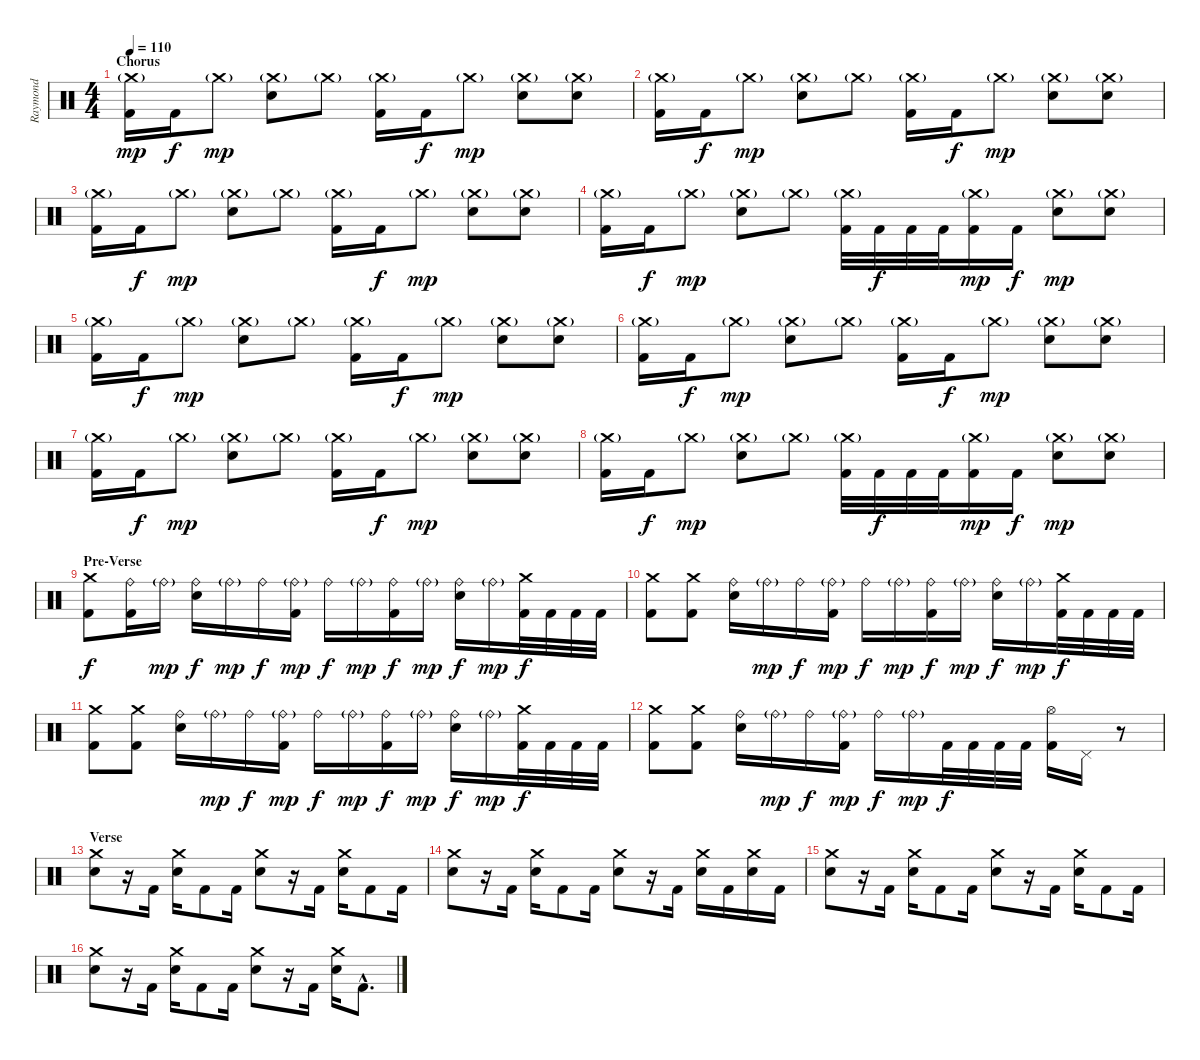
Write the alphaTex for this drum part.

\track ("Raymond" "Raymond") {instrument percussion}
\staff {score}
\articulation defaults
\ts (4 4)
\section ("" "Chorus")
\tempo 110
\clef neutral
\ks c
("Crash medium (hit)"{g} "Kick (hit) 2").16{dy mp} "Kick (hit) 2".16{dy f} "Crash medium (hit)"{g}.8{dy mp} ("Crash medium (hit)"{g} "Electric Snare (hit)").8 "Crash medium (hit)"{g}.8 ("Crash medium (hit)"{g} "Kick (hit) 2").16 "Kick (hit) 2".16{dy f} "Crash medium (hit)"{g}.8{dy mp} ("Crash medium (hit)"{g} "Electric Snare (hit)").8 ("Crash medium (hit)"{g} "Electric Snare (hit)").8 |
("Crash medium (hit)"{g} "Kick (hit) 2").16 "Kick (hit) 2".16{dy f} "Crash medium (hit)"{g}.8{dy mp} ("Crash medium (hit)"{g} "Electric Snare (hit)").8 "Crash medium (hit)"{g}.8 ("Crash medium (hit)"{g} "Kick (hit) 2").16 "Kick (hit) 2".16{dy f} "Crash medium (hit)"{g}.8{dy mp} ("Crash medium (hit)"{g} "Electric Snare (hit)").8 ("Crash medium (hit)"{g} "Electric Snare (hit)").8 |
("Crash medium (hit)"{g} "Kick (hit) 2").16 "Kick (hit) 2".16{dy f} "Crash medium (hit)"{g}.8{dy mp} ("Crash medium (hit)"{g} "Electric Snare (hit)").8 "Crash medium (hit)"{g}.8 ("Crash medium (hit)"{g} "Kick (hit) 2").16 "Kick (hit) 2".16{dy f} "Crash medium (hit)"{g}.8{dy mp} ("Crash medium (hit)"{g} "Electric Snare (hit)").8 ("Crash medium (hit)"{g} "Electric Snare (hit)").8 |
("Crash medium (hit)"{g} "Kick (hit) 2").16 "Kick (hit) 2".16{dy f} "Crash medium (hit)"{g}.8{dy mp} ("Crash medium (hit)"{g} "Electric Snare (hit)").8 "Crash medium (hit)"{g}.8 ("Crash medium (hit)"{g} "Kick (hit) 2").32 "Kick (hit) 2".32{dy f} "Kick (hit) 2".32 "Kick (hit) 2".32 ("Crash medium (hit)"{g} "Kick (hit) 2").16{dy mp} "Kick (hit) 2".16{dy f} ("Crash medium (hit)"{g} "Electric Snare (hit)").8{dy mp} ("Crash medium (hit)"{g} "Electric Snare (hit)").8 |
("Crash medium (hit)"{g} "Kick (hit) 2").16 "Kick (hit) 2".16{dy f} "Crash medium (hit)"{g}.8{dy mp} ("Crash medium (hit)"{g} "Electric Snare (hit)").8 "Crash medium (hit)"{g}.8 ("Crash medium (hit)"{g} "Kick (hit) 2").16 "Kick (hit) 2".16{dy f} "Crash medium (hit)"{g}.8{dy mp} ("Crash medium (hit)"{g} "Electric Snare (hit)").8 ("Crash medium (hit)"{g} "Electric Snare (hit)").8 |
("Crash medium (hit)"{g} "Kick (hit) 2").16 "Kick (hit) 2".16{dy f} "Crash medium (hit)"{g}.8{dy mp} ("Crash medium (hit)"{g} "Electric Snare (hit)").8 "Crash medium (hit)"{g}.8 ("Crash medium (hit)"{g} "Kick (hit) 2").16 "Kick (hit) 2".16{dy f} "Crash medium (hit)"{g}.8{dy mp} ("Crash medium (hit)"{g} "Electric Snare (hit)").8 ("Crash medium (hit)"{g} "Electric Snare (hit)").8 |
("Crash medium (hit)"{g} "Kick (hit) 2").16 "Kick (hit) 2".16{dy f} "Crash medium (hit)"{g}.8{dy mp} ("Crash medium (hit)"{g} "Electric Snare (hit)").8 "Crash medium (hit)"{g}.8 ("Crash medium (hit)"{g} "Kick (hit) 2").16 "Kick (hit) 2".16{dy f} "Crash medium (hit)"{g}.8{dy mp} ("Crash medium (hit)"{g} "Electric Snare (hit)").8 ("Crash medium (hit)"{g} "Electric Snare (hit)").8 |
("Crash medium (hit)"{g} "Kick (hit) 2").16 "Kick (hit) 2".16{dy f} "Crash medium (hit)"{g}.8{dy mp} ("Crash medium (hit)"{g} "Electric Snare (hit)").8 "Crash medium (hit)"{g}.8 ("Crash medium (hit)"{g} "Kick (hit) 2").32 "Kick (hit) 2".32{dy f} "Kick (hit) 2".32 "Kick (hit) 2".32 ("Crash medium (hit)"{g} "Kick (hit) 2").16{dy mp} "Kick (hit) 2".16{dy f} ("Crash medium (hit)"{g} "Electric Snare (hit)").8{dy mp} ("Crash medium (hit)"{g} "Electric Snare (hit)").8 |
\section ("" "Pre-Verse")
("Crash medium (hit)" "Kick (hit) 2").8{dy f} ("Ride (bell)" "Kick (hit) 2").16 "Ride (bell)"{g}.16{dy mp} ("Ride (bell)" "Electric Snare (hit)").16{dy f} "Ride (bell)"{g}.16{dy mp} "Ride (bell)".16{dy f} ("Ride (bell)"{g} "Kick (hit) 2").16{dy mp} "Ride (bell)".16{dy f} "Ride (bell)"{g}.16{dy mp} ("Ride (bell)" "Kick (hit) 2").16{dy f} "Ride (bell)"{g}.16{dy mp} ("Ride (bell)" "Electric Snare (hit)").16{dy f} "Ride (bell)"{g}.16{dy mp} ("Crash medium (hit)" "Kick (hit) 2").32{dy f} "Kick (hit) 2".32 "Kick (hit) 2".32 "Kick (hit) 2".32 |
("Crash medium (hit)" "Kick (hit) 2").8 ("Crash medium (hit)" "Kick (hit) 2").8 ("Ride (bell)" "Electric Snare (hit)").16 "Ride (bell)"{g}.16{dy mp} "Ride (bell)".16{dy f} ("Ride (bell)"{g} "Kick (hit) 2").16{dy mp} "Ride (bell)".16{dy f} "Ride (bell)"{g}.16{dy mp} ("Ride (bell)" "Kick (hit) 2").16{dy f} "Ride (bell)"{g}.16{dy mp} ("Ride (bell)" "Electric Snare (hit)").16{dy f} "Ride (bell)"{g}.16{dy mp} ("Crash medium (hit)" "Kick (hit) 2").32{dy f} "Kick (hit) 2".32 "Kick (hit) 2".32 "Kick (hit) 2".32 |
("Crash medium (hit)" "Kick (hit) 2").8 ("Crash medium (hit)" "Kick (hit) 2").8 ("Ride (bell)" "Electric Snare (hit)").16 "Ride (bell)"{g}.16{dy mp} "Ride (bell)".16{dy f} ("Ride (bell)"{g} "Kick (hit) 2").16{dy mp} "Ride (bell)".16{dy f} "Ride (bell)"{g}.16{dy mp} ("Ride (bell)" "Kick (hit) 2").16{dy f} "Ride (bell)"{g}.16{dy mp} ("Ride (bell)" "Electric Snare (hit)").16{dy f} "Ride (bell)"{g}.16{dy mp} ("Crash medium (hit)" "Kick (hit) 2").32{dy f} "Kick (hit) 2".32 "Kick (hit) 2".32 "Kick (hit) 2".32 |
("Crash medium (hit)" "Kick (hit) 2").8 ("Crash medium (hit)" "Kick (hit) 2").8 ("Ride (bell)" "Electric Snare (hit)").16 "Ride (bell)"{g}.16{dy mp} "Ride (bell)".16{dy f} ("Ride (bell)"{g} "Kick (hit) 2").16{dy mp} "Ride (bell)".16{dy f} "Ride (bell)"{g}.16{dy mp} "Kick (hit) 2".32{dy f} "Kick (hit) 2".32 "Kick (hit) 2".32 "Kick (hit) 2".32 ("Hi-Hat (open)" "Kick (hit) 2").16 "Pedal Hi-Hat (hit)".16 r.8 |
\section ("" "Verse")
("Crash medium (hit)" "Electric Snare (hit)").8 r.16 "Kick (hit) 2".16 ("Crash medium (hit)" "Electric Snare (hit)").16 "Kick (hit) 2".8 "Kick (hit) 2".16 ("Crash medium (hit)" "Electric Snare (hit)").8 r.16 "Kick (hit) 2".16 ("Crash medium (hit)" "Electric Snare (hit)").16 "Kick (hit) 2".8 "Kick (hit) 2".16 |
("Crash medium (hit)" "Electric Snare (hit)").8 r.16 "Kick (hit) 2".16 ("Crash medium (hit)" "Electric Snare (hit)").16 "Kick (hit) 2".8 "Kick (hit) 2".16 ("Crash medium (hit)" "Electric Snare (hit)").8 r.16 "Kick (hit) 2".16 ("Crash medium (hit)" "Electric Snare (hit)").16 "Kick (hit) 2".16 ("Crash medium (hit)" "Electric Snare (hit)").16 "Kick (hit) 2".16 |
("Crash medium (hit)" "Electric Snare (hit)").8 r.16 "Kick (hit) 2".16 ("Crash medium (hit)" "Electric Snare (hit)").16 "Kick (hit) 2".8 "Kick (hit) 2".16 ("Crash medium (hit)" "Electric Snare (hit)").8 r.16 "Kick (hit) 2".16 ("Crash medium (hit)" "Electric Snare (hit)").16 "Kick (hit) 2".8 "Kick (hit) 2".16 |
("Crash medium (hit)" "Electric Snare (hit)").8 r.16 "Kick (hit) 2".16 ("Crash medium (hit)" "Electric Snare (hit)").16 "Kick (hit) 2".8 "Kick (hit) 2".16 ("Crash medium (hit)" "Electric Snare (hit)").8 r.16 "Kick (hit) 2".16 ("Crash medium (hit)" "Electric Snare (hit)").16 "Kick (hit) 2"{hac}.8{d}
